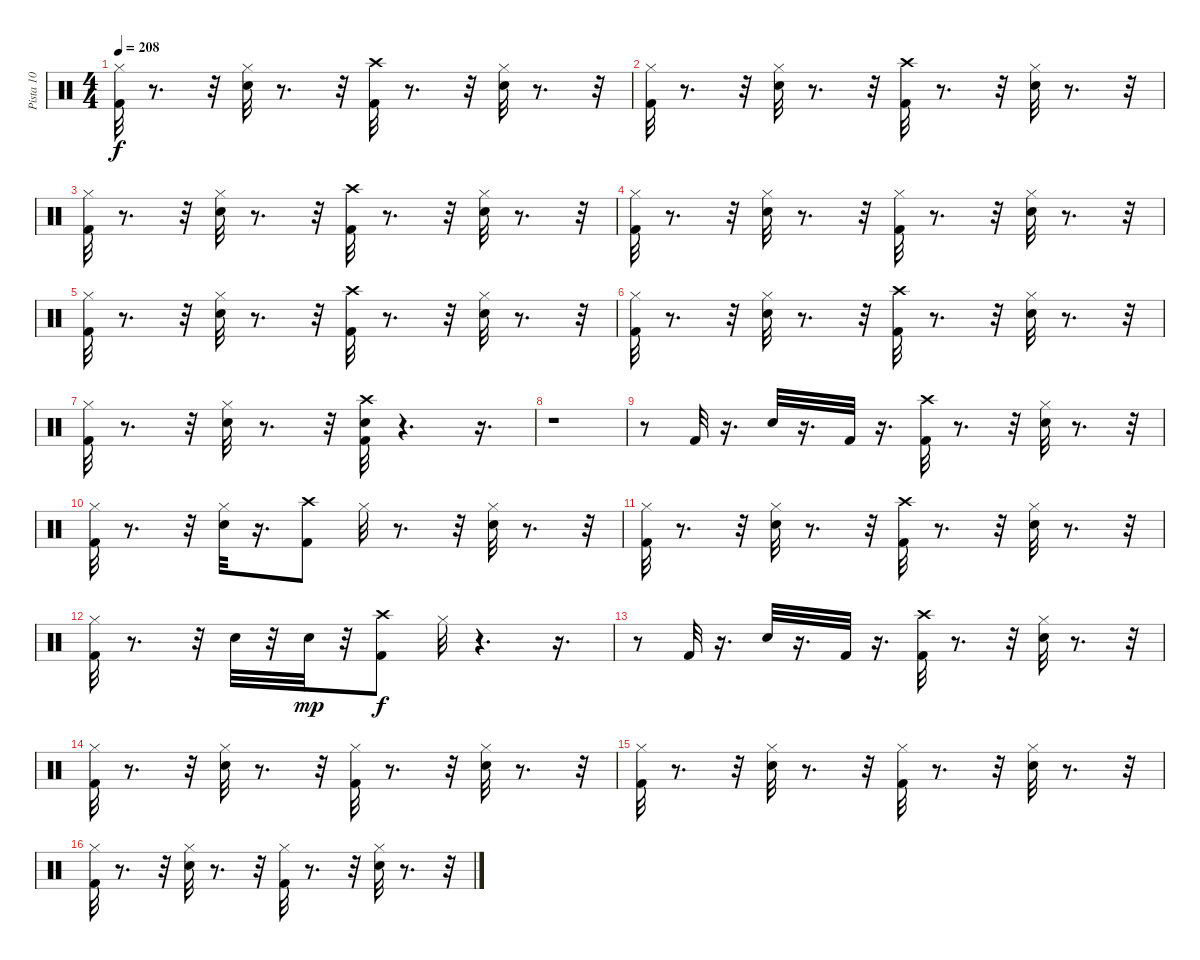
\track ("Pista 10" "Pista 10") {instrument percussion}
\staff {score}
\articulation defaults
\ts (4 4)
\tempo 208
\clef neutral
\ks c
("Kick (hit) 2" "Hi-Hat (closed)").32{dy f} r.8{d} r.32 ("Snare (hit) 2" "Hi-Hat (closed)").32 r.8{d} r.32 ("Crash high (hit)" "Kick (hit) 2").32 r.8{d} r.32 ("Snare (hit) 2" "Hi-Hat (closed)").32 r.8{d} r.32 |
("Kick (hit) 2" "Hi-Hat (closed)").32 r.8{d} r.32 ("Snare (hit) 2" "Hi-Hat (closed)").32 r.8{d} r.32 ("Crash high (hit)" "Kick (hit) 2").32 r.8{d} r.32 ("Snare (hit) 2" "Hi-Hat (closed)").32 r.8{d} r.32 |
("Kick (hit) 2" "Hi-Hat (closed)").32 r.8{d} r.32 ("Snare (hit) 2" "Hi-Hat (closed)").32 r.8{d} r.32 ("Crash high (hit)" "Kick (hit) 2").32 r.8{d} r.32 ("Snare (hit) 2" "Hi-Hat (closed)").32 r.8{d} r.32 |
("Kick (hit) 2" "Hi-Hat (closed)").32 r.8{d} r.32 ("Snare (hit) 2" "Hi-Hat (closed)").32 r.8{d} r.32 ("Kick (hit) 2" "Hi-Hat (closed)").32 r.8{d} r.32 ("Snare (hit) 2" "Hi-Hat (closed)").32 r.8{d} r.32 |
("Kick (hit) 2" "Hi-Hat (closed)").32 r.8{d} r.32 ("Snare (hit) 2" "Hi-Hat (closed)").32 r.8{d} r.32 ("Crash high (hit)" "Kick (hit) 2").32 r.8{d} r.32 ("Snare (hit) 2" "Hi-Hat (closed)").32 r.8{d} r.32 |
("Kick (hit) 2" "Hi-Hat (closed)").32 r.8{d} r.32 ("Snare (hit) 2" "Hi-Hat (closed)").32 r.8{d} r.32 ("Crash high (hit)" "Kick (hit) 2").32 r.8{d} r.32 ("Snare (hit) 2" "Hi-Hat (closed)").32 r.8{d} r.32 |
("Kick (hit) 2" "Hi-Hat (closed)").32 r.8{d} r.32 ("Snare (hit) 2" "Hi-Hat (closed)").32 r.8{d} r.32 ("Snare (hit) 2" "Kick (hit) 2" "Crash high (hit)").32 r.4{d} r.16{d} |
r.1 |
r.8 "Kick (hit) 2".32 r.16{d} "Snare (hit) 2".32 r.16{d} "Kick (hit) 2".32 r.16{d} ("Kick (hit) 2" "Crash high (hit)").32 r.8{d} r.32 ("Snare (hit) 2" "Hi-Hat (closed)").32 r.8{d} r.32 |
("Kick (hit) 2" "Hi-Hat (closed)").32 r.8{d} r.32 ("Snare (hit) 2" "Hi-Hat (closed)").32 r.16{d} ("Crash high (hit)" "Kick (hit) 2").8 "Hi-Hat (closed)".32 r.8{d} r.32 ("Snare (hit) 2" "Hi-Hat (closed)").32 r.8{d} r.32 |
("Hi-Hat (closed)" "Kick (hit) 2").32 r.8{d} r.32 ("Snare (hit) 2" "Hi-Hat (closed)").32 r.8{d} r.32 ("Kick (hit) 2" "Crash high (hit)").32 r.8{d} r.32 ("Snare (hit) 2" "Hi-Hat (closed)").32 r.8{d} r.32 |
("Kick (hit) 2" "Hi-Hat (closed)").32 r.8{d} r.32 "Snare (hit) 2".32 r.32 "Snare (hit) 2".32{dy mp} r.32 ("Crash high (hit)" "Kick (hit) 2").8{dy f} "Hi-Hat (closed)".32 r.4{d} r.16{d} |
r.8 "Kick (hit) 2".32 r.16{d} "Snare (hit) 2".32 r.16{d} "Kick (hit) 2".32 r.16{d} ("Kick (hit) 2" "Crash high (hit)").32 r.8{d} r.32 ("Snare (hit) 2" "Hi-Hat (closed)").32 r.8{d} r.32 |
("Kick (hit) 2" "Hi-Hat (closed)").32 r.8{d} r.32 ("Snare (hit) 2" "Hi-Hat (closed)").32 r.8{d} r.32 ("Hi-Hat (closed)" "Kick (hit) 2").32 r.8{d} r.32 ("Snare (hit) 2" "Hi-Hat (closed)").32 r.8{d} r.32 |
("Kick (hit) 2" "Hi-Hat (closed)").32 r.8{d} r.32 ("Snare (hit) 2" "Hi-Hat (closed)").32 r.8{d} r.32 ("Hi-Hat (closed)" "Kick (hit) 2").32 r.8{d} r.32 ("Snare (hit) 2" "Hi-Hat (closed)").32 r.8{d} r.32 |
("Kick (hit) 2" "Hi-Hat (closed)").32 r.8{d} r.32 ("Snare (hit) 2" "Hi-Hat (closed)").32 r.8{d} r.32 ("Hi-Hat (closed)" "Kick (hit) 2").32 r.8{d} r.32 ("Snare (hit) 2" "Hi-Hat (closed)").32 r.8{d} r.32
